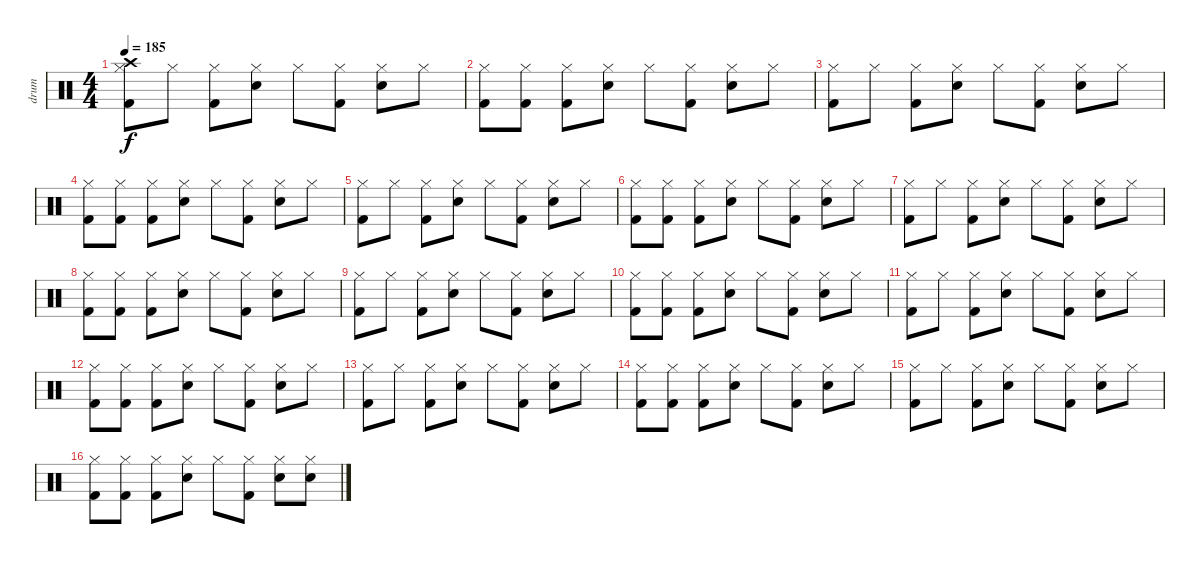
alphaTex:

\track ("drum" "drum") {instrument percussion}
\staff {score}
\articulation defaults
\ts (4 4)
\tempo 185
\clef neutral
\ks c
("Hi-Hat (closed)" "Crash high (hit)" "Kick (hit) 2").8{dy f} "Hi-Hat (closed)".8 ("Hi-Hat (closed)" "Kick (hit) 2").8 ("Hi-Hat (closed)" "Electric Snare (hit)").8 "Hi-Hat (closed)".8 ("Hi-Hat (closed)" "Kick (hit) 2").8 ("Hi-Hat (closed)" "Electric Snare (hit)").8 "Hi-Hat (closed)".8 |
("Hi-Hat (closed)" "Kick (hit) 2").8 ("Hi-Hat (closed)" "Kick (hit) 2").8 ("Hi-Hat (closed)" "Kick (hit) 2").8 ("Hi-Hat (closed)" "Electric Snare (hit)").8 "Hi-Hat (closed)".8 ("Hi-Hat (closed)" "Kick (hit) 2").8 ("Hi-Hat (closed)" "Electric Snare (hit)").8 "Hi-Hat (closed)".8 |
("Hi-Hat (closed)" "Kick (hit) 2").8 "Hi-Hat (closed)".8 ("Hi-Hat (closed)" "Kick (hit) 2").8 ("Hi-Hat (closed)" "Electric Snare (hit)").8 "Hi-Hat (closed)".8 ("Hi-Hat (closed)" "Kick (hit) 2").8 ("Hi-Hat (closed)" "Electric Snare (hit)").8 "Hi-Hat (closed)".8 |
("Hi-Hat (closed)" "Kick (hit) 2").8 ("Hi-Hat (closed)" "Kick (hit) 2").8 ("Hi-Hat (closed)" "Kick (hit) 2").8 ("Hi-Hat (closed)" "Electric Snare (hit)").8 "Hi-Hat (closed)".8 ("Hi-Hat (closed)" "Kick (hit) 2").8 ("Hi-Hat (closed)" "Electric Snare (hit)").8 "Hi-Hat (closed)".8 |
("Hi-Hat (closed)" "Kick (hit) 2").8 "Hi-Hat (closed)".8 ("Hi-Hat (closed)" "Kick (hit) 2").8 ("Hi-Hat (closed)" "Electric Snare (hit)").8 "Hi-Hat (closed)".8 ("Hi-Hat (closed)" "Kick (hit) 2").8 ("Hi-Hat (closed)" "Electric Snare (hit)").8 "Hi-Hat (closed)".8 |
("Hi-Hat (closed)" "Kick (hit) 2").8 ("Hi-Hat (closed)" "Kick (hit) 2").8 ("Hi-Hat (closed)" "Kick (hit) 2").8 ("Hi-Hat (closed)" "Electric Snare (hit)").8 "Hi-Hat (closed)".8 ("Hi-Hat (closed)" "Kick (hit) 2").8 ("Hi-Hat (closed)" "Electric Snare (hit)").8 "Hi-Hat (closed)".8 |
("Hi-Hat (closed)" "Kick (hit) 2").8 "Hi-Hat (closed)".8 ("Hi-Hat (closed)" "Kick (hit) 2").8 ("Hi-Hat (closed)" "Electric Snare (hit)").8 "Hi-Hat (closed)".8 ("Hi-Hat (closed)" "Kick (hit) 2").8 ("Hi-Hat (closed)" "Electric Snare (hit)").8 "Hi-Hat (closed)".8 |
("Hi-Hat (closed)" "Kick (hit) 2").8 ("Hi-Hat (closed)" "Kick (hit) 2").8 ("Hi-Hat (closed)" "Kick (hit) 2").8 ("Hi-Hat (closed)" "Electric Snare (hit)").8 "Hi-Hat (closed)".8 ("Hi-Hat (closed)" "Kick (hit) 2").8 ("Hi-Hat (closed)" "Electric Snare (hit)").8 "Hi-Hat (closed)".8 |
("Hi-Hat (closed)" "Kick (hit) 2").8 "Hi-Hat (closed)".8 ("Hi-Hat (closed)" "Kick (hit) 2").8 ("Hi-Hat (closed)" "Electric Snare (hit)").8 "Hi-Hat (closed)".8 ("Hi-Hat (closed)" "Kick (hit) 2").8 ("Hi-Hat (closed)" "Electric Snare (hit)").8 "Hi-Hat (closed)".8 |
("Hi-Hat (closed)" "Kick (hit) 2").8 ("Hi-Hat (closed)" "Kick (hit) 2").8 ("Hi-Hat (closed)" "Kick (hit) 2").8 ("Hi-Hat (closed)" "Electric Snare (hit)").8 "Hi-Hat (closed)".8 ("Hi-Hat (closed)" "Kick (hit) 2").8 ("Hi-Hat (closed)" "Electric Snare (hit)").8 "Hi-Hat (closed)".8 |
("Hi-Hat (closed)" "Kick (hit) 2").8 "Hi-Hat (closed)".8 ("Hi-Hat (closed)" "Kick (hit) 2").8 ("Hi-Hat (closed)" "Electric Snare (hit)").8 "Hi-Hat (closed)".8 ("Hi-Hat (closed)" "Kick (hit) 2").8 ("Hi-Hat (closed)" "Electric Snare (hit)").8 "Hi-Hat (closed)".8 |
("Hi-Hat (closed)" "Kick (hit) 2").8 ("Hi-Hat (closed)" "Kick (hit) 2").8 ("Hi-Hat (closed)" "Kick (hit) 2").8 ("Hi-Hat (closed)" "Electric Snare (hit)").8 "Hi-Hat (closed)".8 ("Hi-Hat (closed)" "Kick (hit) 2").8 ("Hi-Hat (closed)" "Electric Snare (hit)").8 "Hi-Hat (closed)".8 |
("Hi-Hat (closed)" "Kick (hit) 2").8 "Hi-Hat (closed)".8 ("Hi-Hat (closed)" "Kick (hit) 2").8 ("Hi-Hat (closed)" "Electric Snare (hit)").8 "Hi-Hat (closed)".8 ("Hi-Hat (closed)" "Kick (hit) 2").8 ("Hi-Hat (closed)" "Electric Snare (hit)").8 "Hi-Hat (closed)".8 |
("Hi-Hat (closed)" "Kick (hit) 2").8 ("Hi-Hat (closed)" "Kick (hit) 2").8 ("Hi-Hat (closed)" "Kick (hit) 2").8 ("Hi-Hat (closed)" "Electric Snare (hit)").8 "Hi-Hat (closed)".8 ("Hi-Hat (closed)" "Kick (hit) 2").8 ("Hi-Hat (closed)" "Electric Snare (hit)").8 "Hi-Hat (closed)".8 |
("Hi-Hat (closed)" "Kick (hit) 2").8 "Hi-Hat (closed)".8 ("Hi-Hat (closed)" "Kick (hit) 2").8 ("Hi-Hat (closed)" "Electric Snare (hit)").8 "Hi-Hat (closed)".8 ("Hi-Hat (closed)" "Kick (hit) 2").8 ("Hi-Hat (closed)" "Electric Snare (hit)").8 "Hi-Hat (closed)".8 |
("Hi-Hat (closed)" "Kick (hit) 2").8 ("Hi-Hat (closed)" "Kick (hit) 2").8 ("Hi-Hat (closed)" "Kick (hit) 2").8 ("Hi-Hat (closed)" "Electric Snare (hit)").8 "Hi-Hat (closed)".8 ("Hi-Hat (closed)" "Kick (hit) 2").8 ("Hi-Hat (closed)" "Electric Snare (hit)").8 ("Hi-Hat (closed)" "Electric Snare (hit)").8
